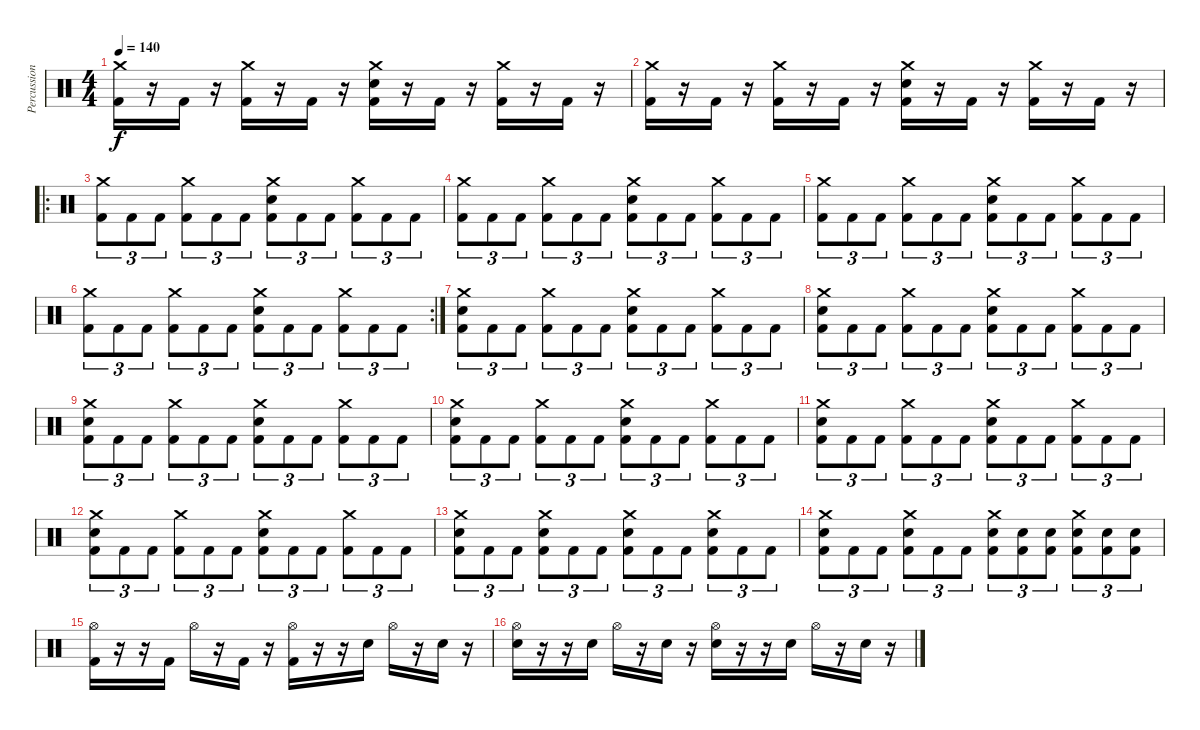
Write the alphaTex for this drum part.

\track ("Percussion" "Percussion") {instrument percussion}
\staff {score}
\articulation defaults
\ts (4 4)
\tempo 140
\clef neutral
\ks c
("Crash medium (hit)" "Kick (hit) 2").16{dy f} r.16 "Kick (hit) 2".16 r.16 ("Crash medium (hit)" "Kick (hit) 2").16 r.16 "Kick (hit) 2".16 r.16 ("Crash medium (hit)" "Kick (hit) 2" "Electric Snare (hit)").16 r.16 "Kick (hit) 2".16 r.16 ("Crash medium (hit)" "Kick (hit) 2").16 r.16 "Kick (hit) 2".16 r.16 |
("Crash medium (hit)" "Kick (hit) 2").16 r.16 "Kick (hit) 2".16 r.16 ("Crash medium (hit)" "Kick (hit) 2").16 r.16 "Kick (hit) 2".16 r.16 ("Crash medium (hit)" "Kick (hit) 2" "Electric Snare (hit)").16 r.16 "Kick (hit) 2".16 r.16 ("Crash medium (hit)" "Kick (hit) 2").16 r.16 "Kick (hit) 2".16 r.16 |
\ro
("Crash medium (hit)" "Kick (hit) 2").8{tu (3 2)} "Kick (hit) 2".8{tu (3 2)} "Kick (hit) 2".8{tu (3 2)} ("Crash medium (hit)" "Kick (hit) 2").8{tu (3 2)} "Kick (hit) 2".8{tu (3 2)} "Kick (hit) 2".8{tu (3 2)} ("Crash medium (hit)" "Electric Snare (hit)" "Kick (hit) 2").8{tu (3 2)} "Kick (hit) 2".8{tu (3 2)} "Kick (hit) 2".8{tu (3 2)} ("Crash medium (hit)" "Kick (hit) 2").8{tu (3 2)} "Kick (hit) 2".8{tu (3 2)} "Kick (hit) 2".8{tu (3 2)} |
("Crash medium (hit)" "Kick (hit) 2").8{tu (3 2)} "Kick (hit) 2".8{tu (3 2)} "Kick (hit) 2".8{tu (3 2)} ("Crash medium (hit)" "Kick (hit) 2").8{tu (3 2)} "Kick (hit) 2".8{tu (3 2)} "Kick (hit) 2".8{tu (3 2)} ("Crash medium (hit)" "Electric Snare (hit)" "Kick (hit) 2").8{tu (3 2)} "Kick (hit) 2".8{tu (3 2)} "Kick (hit) 2".8{tu (3 2)} ("Crash medium (hit)" "Kick (hit) 2").8{tu (3 2)} "Kick (hit) 2".8{tu (3 2)} "Kick (hit) 2".8{tu (3 2)} |
("Crash medium (hit)" "Kick (hit) 2").8{tu (3 2)} "Kick (hit) 2".8{tu (3 2)} "Kick (hit) 2".8{tu (3 2)} ("Crash medium (hit)" "Kick (hit) 2").8{tu (3 2)} "Kick (hit) 2".8{tu (3 2)} "Kick (hit) 2".8{tu (3 2)} ("Crash medium (hit)" "Electric Snare (hit)" "Kick (hit) 2").8{tu (3 2)} "Kick (hit) 2".8{tu (3 2)} "Kick (hit) 2".8{tu (3 2)} ("Crash medium (hit)" "Kick (hit) 2").8{tu (3 2)} "Kick (hit) 2".8{tu (3 2)} "Kick (hit) 2".8{tu (3 2)} |
\rc 2
("Crash medium (hit)" "Kick (hit) 2").8{tu (3 2)} "Kick (hit) 2".8{tu (3 2)} "Kick (hit) 2".8{tu (3 2)} ("Crash medium (hit)" "Kick (hit) 2").8{tu (3 2)} "Kick (hit) 2".8{tu (3 2)} "Kick (hit) 2".8{tu (3 2)} ("Crash medium (hit)" "Electric Snare (hit)" "Kick (hit) 2").8{tu (3 2)} "Kick (hit) 2".8{tu (3 2)} "Kick (hit) 2".8{tu (3 2)} ("Crash medium (hit)" "Kick (hit) 2").8{tu (3 2)} "Kick (hit) 2".8{tu (3 2)} "Kick (hit) 2".8{tu (3 2)} |
("Crash medium (hit)" "Electric Snare (hit)" "Kick (hit) 2").8{tu (3 2)} "Kick (hit) 2".8{tu (3 2)} "Kick (hit) 2".8{tu (3 2)} ("Crash medium (hit)" "Kick (hit) 2").8{tu (3 2)} "Kick (hit) 2".8{tu (3 2)} "Kick (hit) 2".8{tu (3 2)} ("Crash medium (hit)" "Electric Snare (hit)" "Kick (hit) 2").8{tu (3 2)} "Kick (hit) 2".8{tu (3 2)} "Kick (hit) 2".8{tu (3 2)} ("Crash medium (hit)" "Kick (hit) 2").8{tu (3 2)} "Kick (hit) 2".8{tu (3 2)} "Kick (hit) 2".8{tu (3 2)} |
("Crash medium (hit)" "Electric Snare (hit)" "Kick (hit) 2").8{tu (3 2)} "Kick (hit) 2".8{tu (3 2)} "Kick (hit) 2".8{tu (3 2)} ("Crash medium (hit)" "Kick (hit) 2").8{tu (3 2)} "Kick (hit) 2".8{tu (3 2)} "Kick (hit) 2".8{tu (3 2)} ("Crash medium (hit)" "Electric Snare (hit)" "Kick (hit) 2").8{tu (3 2)} "Kick (hit) 2".8{tu (3 2)} "Kick (hit) 2".8{tu (3 2)} ("Crash medium (hit)" "Kick (hit) 2").8{tu (3 2)} "Kick (hit) 2".8{tu (3 2)} "Kick (hit) 2".8{tu (3 2)} |
("Crash medium (hit)" "Electric Snare (hit)" "Kick (hit) 2").8{tu (3 2)} "Kick (hit) 2".8{tu (3 2)} "Kick (hit) 2".8{tu (3 2)} ("Crash medium (hit)" "Kick (hit) 2").8{tu (3 2)} "Kick (hit) 2".8{tu (3 2)} "Kick (hit) 2".8{tu (3 2)} ("Crash medium (hit)" "Electric Snare (hit)" "Kick (hit) 2").8{tu (3 2)} "Kick (hit) 2".8{tu (3 2)} "Kick (hit) 2".8{tu (3 2)} ("Crash medium (hit)" "Kick (hit) 2").8{tu (3 2)} "Kick (hit) 2".8{tu (3 2)} "Kick (hit) 2".8{tu (3 2)} |
("Crash medium (hit)" "Electric Snare (hit)" "Kick (hit) 2").8{tu (3 2)} "Kick (hit) 2".8{tu (3 2)} "Kick (hit) 2".8{tu (3 2)} ("Crash medium (hit)" "Kick (hit) 2").8{tu (3 2)} "Kick (hit) 2".8{tu (3 2)} "Kick (hit) 2".8{tu (3 2)} ("Crash medium (hit)" "Electric Snare (hit)" "Kick (hit) 2").8{tu (3 2)} "Kick (hit) 2".8{tu (3 2)} "Kick (hit) 2".8{tu (3 2)} ("Crash medium (hit)" "Kick (hit) 2").8{tu (3 2)} "Kick (hit) 2".8{tu (3 2)} "Kick (hit) 2".8{tu (3 2)} |
("Crash medium (hit)" "Electric Snare (hit)" "Kick (hit) 2").8{tu (3 2)} "Kick (hit) 2".8{tu (3 2)} "Kick (hit) 2".8{tu (3 2)} ("Crash medium (hit)" "Kick (hit) 2").8{tu (3 2)} "Kick (hit) 2".8{tu (3 2)} "Kick (hit) 2".8{tu (3 2)} ("Crash medium (hit)" "Electric Snare (hit)" "Kick (hit) 2").8{tu (3 2)} "Kick (hit) 2".8{tu (3 2)} "Kick (hit) 2".8{tu (3 2)} ("Crash medium (hit)" "Kick (hit) 2").8{tu (3 2)} "Kick (hit) 2".8{tu (3 2)} "Kick (hit) 2".8{tu (3 2)} |
("Crash medium (hit)" "Electric Snare (hit)" "Kick (hit) 2").8{tu (3 2)} "Kick (hit) 2".8{tu (3 2)} "Kick (hit) 2".8{tu (3 2)} ("Crash medium (hit)" "Kick (hit) 2").8{tu (3 2)} "Kick (hit) 2".8{tu (3 2)} "Kick (hit) 2".8{tu (3 2)} ("Crash medium (hit)" "Electric Snare (hit)" "Kick (hit) 2").8{tu (3 2)} "Kick (hit) 2".8{tu (3 2)} "Kick (hit) 2".8{tu (3 2)} ("Crash medium (hit)" "Kick (hit) 2").8{tu (3 2)} "Kick (hit) 2".8{tu (3 2)} "Kick (hit) 2".8{tu (3 2)} |
("Crash medium (hit)" "Electric Snare (hit)" "Kick (hit) 2").8{tu (3 2)} "Kick (hit) 2".8{tu (3 2)} "Kick (hit) 2".8{tu (3 2)} ("Crash medium (hit)" "Electric Snare (hit)" "Kick (hit) 2").8{tu (3 2)} "Kick (hit) 2".8{tu (3 2)} "Kick (hit) 2".8{tu (3 2)} ("Crash medium (hit)" "Electric Snare (hit)" "Kick (hit) 2").8{tu (3 2)} "Kick (hit) 2".8{tu (3 2)} "Kick (hit) 2".8{tu (3 2)} ("Crash medium (hit)" "Electric Snare (hit)" "Kick (hit) 2").8{tu (3 2)} "Kick (hit) 2".8{tu (3 2)} "Kick (hit) 2".8{tu (3 2)} |
("Crash medium (hit)" "Electric Snare (hit)" "Kick (hit) 2").8{tu (3 2)} "Kick (hit) 2".8{tu (3 2)} "Kick (hit) 2".8{tu (3 2)} ("Crash medium (hit)" "Electric Snare (hit)" "Kick (hit) 2").8{tu (3 2)} "Kick (hit) 2".8{tu (3 2)} "Kick (hit) 2".8{tu (3 2)} ("Crash medium (hit)" "Electric Snare (hit)" "Kick (hit) 2").8{tu (3 2)} ("Electric Snare (hit)" "Kick (hit) 2").8{tu (3 2)} ("Electric Snare (hit)" "Kick (hit) 2").8{tu (3 2)} ("Crash medium (hit)" "Electric Snare (hit)" "Kick (hit) 2").8{tu (3 2)} ("Electric Snare (hit)" "Kick (hit) 2").8{tu (3 2)} ("Electric Snare (hit)" "Kick (hit) 2").8{tu (3 2)} |
("Hi-Hat (open)" "Kick (hit) 2").16 r.16 r.16 "Kick (hit) 2".16 "Hi-Hat (open)".16 r.16 "Kick (hit) 2".16 r.16 ("Hi-Hat (open)" "Kick (hit) 2").16 r.16 r.16 "Electric Snare (hit)".16 "Hi-Hat (open)".16 r.16 "Electric Snare (hit)".16 r.16 |
("Hi-Hat (open)" "Electric Snare (hit)").16 r.16 r.16 "Electric Snare (hit)".16 "Hi-Hat (open)".16 r.16 "Electric Snare (hit)".16 r.16 ("Hi-Hat (open)" "Electric Snare (hit)").16 r.16 r.16 "Electric Snare (hit)".16 "Hi-Hat (open)".16 r.16 "Electric Snare (hit)".16 r.16
